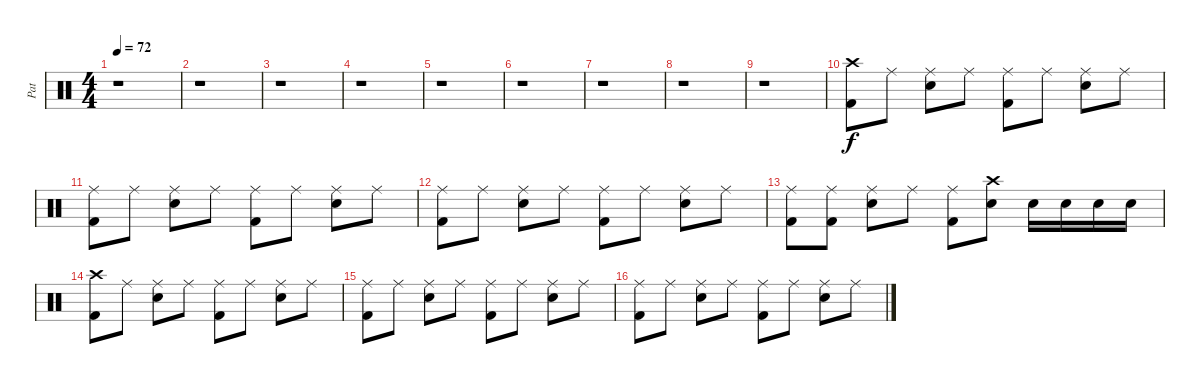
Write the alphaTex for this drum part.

\track ("Pat" "Pat") {instrument percussion}
\staff {score}
\articulation defaults
\ts (4 4)
\tempo 72
\clef neutral
\ks c
r.1{dy f} |
r.1 |
r.1 |
r.1 |
r.1 |
r.1 |
r.1 |
r.1 |
r.1 |
("Crash high (hit)" "Kick (hit) 2").8 "Ride (middle)".8 ("Ride (middle)" "Electric Snare (hit)").8 "Ride (middle)".8 ("Ride (middle)" "Kick (hit) 2").8 "Ride (middle)".8 ("Ride (middle)" "Electric Snare (hit)").8 "Ride (middle)".8 |
("Ride (middle)" "Kick (hit) 2").8 "Ride (middle)".8 ("Ride (middle)" "Electric Snare (hit)").8 "Ride (middle)".8 ("Ride (middle)" "Kick (hit) 2").8 "Ride (middle)".8 ("Ride (middle)" "Electric Snare (hit)").8 "Ride (middle)".8 |
("Ride (middle)" "Kick (hit) 2").8 "Ride (middle)".8 ("Ride (middle)" "Electric Snare (hit)").8 "Ride (middle)".8 ("Ride (middle)" "Kick (hit) 2").8 "Ride (middle)".8 ("Ride (middle)" "Electric Snare (hit)").8 "Ride (middle)".8 |
("Ride (middle)" "Kick (hit) 2").8 ("Ride (middle)" "Kick (hit) 2").8 ("Ride (middle)" "Electric Snare (hit)").8 "Ride (middle)".8 ("Ride (middle)" "Kick (hit) 2").8 ("Crash high (hit)" "Electric Snare (hit)").8 "Electric Snare (hit)".16 "Electric Snare (hit)".16 "Electric Snare (hit)".16 "Electric Snare (hit)".16 |
("Crash high (hit)" "Kick (hit) 2").8 "Ride (middle)".8 ("Ride (middle)" "Electric Snare (hit)").8 "Ride (middle)".8 ("Ride (middle)" "Kick (hit) 2").8 "Ride (middle)".8 ("Ride (middle)" "Electric Snare (hit)").8 "Ride (middle)".8 |
("Ride (middle)" "Kick (hit) 2").8 "Ride (middle)".8 ("Ride (middle)" "Electric Snare (hit)").8 "Ride (middle)".8 ("Ride (middle)" "Kick (hit) 2").8 "Ride (middle)".8 ("Ride (middle)" "Electric Snare (hit)").8 "Ride (middle)".8 |
("Ride (middle)" "Kick (hit) 2").8 "Ride (middle)".8 ("Ride (middle)" "Electric Snare (hit)").8 "Ride (middle)".8 ("Ride (middle)" "Kick (hit) 2").8 "Ride (middle)".8 ("Ride (middle)" "Electric Snare (hit)").8 "Ride (middle)".8
